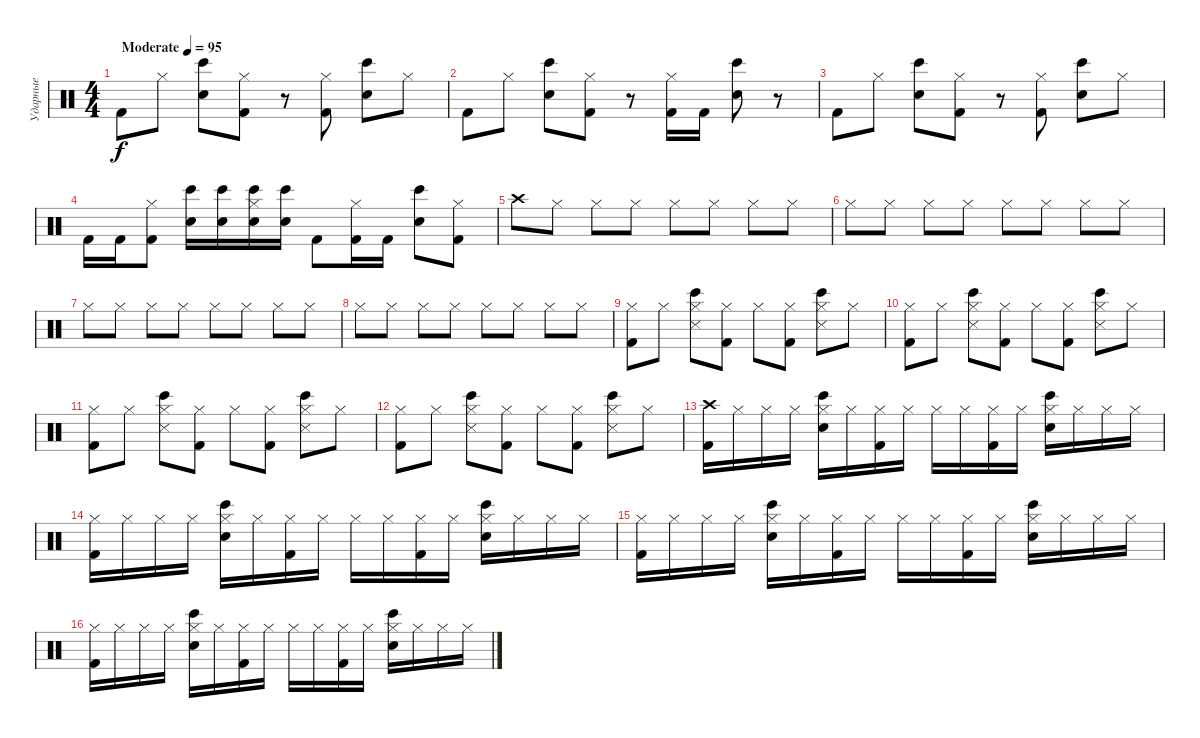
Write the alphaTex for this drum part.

\track ("Ударные" "Ударные") {instrument percussion}
\staff {score}
\articulation defaults
\ts (4 4)
\tempo (95 "Moderate")
\clef neutral
\ks c "Kick (hit) 2".8{dy f} "Hi-Hat (closed)".8
("Electric Snare (hit)" "Bongo High (hit)").8 ("Hi-Hat (closed)" "Kick (hit) 2").8 r.8 ("Hi-Hat (closed)" "Kick (hit) 2").8 ("Electric Snare (hit)" "Bongo High (hit)").8 "Hi-Hat (closed)".8 |
"Kick (hit) 2".8 "Hi-Hat (closed)".8 ("Electric Snare (hit)" "Bongo High (hit)").8 ("Hi-Hat (closed)" "Kick (hit) 2").8 r.8 ("Hi-Hat (closed)" "Kick (hit) 2").16 "Kick (hit) 2".16 ("Electric Snare (hit)" "Bongo High (hit)").8 r.8 |
"Kick (hit) 2".8 "Hi-Hat (closed)".8 ("Electric Snare (hit)" "Bongo High (hit)").8 ("Hi-Hat (closed)" "Kick (hit) 2").8 r.8 ("Hi-Hat (closed)" "Kick (hit) 2").8 ("Electric Snare (hit)" "Bongo High (hit)").8 "Hi-Hat (closed)".8 |
"Kick (hit) 2".16 "Kick (hit) 2".16 ("Hi-Hat (closed)" "Kick (hit) 2").8 ("Electric Snare (hit)" "Bongo High (hit)").16 ("Electric Snare (hit)" "Bongo High (hit)").16 ("Hi-Hat (closed)" "Electric Snare (hit)" "Bongo High (hit)").16 ("Electric Snare (hit)" "Bongo High (hit)").16 "Kick (hit) 2".8 ("Hi-Hat (closed)" "Kick (hit) 2").16 "Kick (hit) 2".16 ("Electric Snare (hit)" "Bongo High (hit)").8 ("Hi-Hat (closed)" "Kick (hit) 2").8 |
"Crash high (hit)".8 "Hi-Hat (closed)".8 "Hi-Hat (closed)".8 "Hi-Hat (closed)".8 "Hi-Hat (closed)".8 "Hi-Hat (closed)".8 "Hi-Hat (closed)".8 "Hi-Hat (closed)".8 |
"Hi-Hat (closed)".8 "Hi-Hat (closed)".8 "Hi-Hat (closed)".8 "Hi-Hat (closed)".8 "Hi-Hat (closed)".8 "Hi-Hat (closed)".8 "Hi-Hat (closed)".8 "Hi-Hat (closed)".8 |
"Hi-Hat (closed)".8 "Hi-Hat (closed)".8 "Hi-Hat (closed)".8 "Hi-Hat (closed)".8 "Hi-Hat (closed)".8 "Hi-Hat (closed)".8 "Hi-Hat (closed)".8 "Hi-Hat (closed)".8 |
"Hi-Hat (closed)".8 "Hi-Hat (closed)".8 "Hi-Hat (closed)".8 "Hi-Hat (closed)".8 "Hi-Hat (closed)".8 "Hi-Hat (closed)".8 "Hi-Hat (closed)".8 "Hi-Hat (closed)".8 |
("Hi-Hat (closed)" "Kick (hit) 2").8 "Hi-Hat (closed)".8 ("Hi-Hat (closed)" "Bongo High (hit)" "Snare (side stick) 3").8 ("Hi-Hat (closed)" "Kick (hit) 2").8 "Hi-Hat (closed)".8 ("Hi-Hat (closed)" "Kick (hit) 2").8 ("Hi-Hat (closed)" "Bongo High (hit)" "Snare (side stick) 3").8 "Hi-Hat (closed)".8 |
("Hi-Hat (closed)" "Kick (hit) 2").8 "Hi-Hat (closed)".8 ("Hi-Hat (closed)" "Bongo High (hit)" "Snare (side stick) 3").8 ("Hi-Hat (closed)" "Kick (hit) 2").8 "Hi-Hat (closed)".8 ("Hi-Hat (closed)" "Kick (hit) 2").8 ("Hi-Hat (closed)" "Bongo High (hit)" "Snare (side stick) 3").8 "Hi-Hat (closed)".8 |
("Hi-Hat (closed)" "Kick (hit) 2").8 "Hi-Hat (closed)".8 ("Hi-Hat (closed)" "Bongo High (hit)" "Snare (side stick) 3").8 ("Hi-Hat (closed)" "Kick (hit) 2").8 "Hi-Hat (closed)".8 ("Hi-Hat (closed)" "Kick (hit) 2").8 ("Hi-Hat (closed)" "Bongo High (hit)" "Snare (side stick) 3").8 "Hi-Hat (closed)".8 |
("Hi-Hat (closed)" "Kick (hit) 2").8 "Hi-Hat (closed)".8 ("Hi-Hat (closed)" "Bongo High (hit)" "Snare (side stick) 3").8 ("Hi-Hat (closed)" "Kick (hit) 2").8 "Hi-Hat (closed)".8 ("Hi-Hat (closed)" "Kick (hit) 2").8 ("Hi-Hat (closed)" "Bongo High (hit)" "Snare (side stick) 3").8 "Hi-Hat (closed)".8 |
("Crash high (hit)" "Kick (hit) 2").16 "Hi-Hat (closed)".16 "Hi-Hat (closed)".16 "Hi-Hat (closed)".16 ("Hi-Hat (closed)" "Electric Snare (hit)" "Bongo High (hit)").16 "Hi-Hat (closed)".16 ("Hi-Hat (closed)" "Kick (hit) 2").16 "Hi-Hat (closed)".16 "Hi-Hat (closed)".16 "Hi-Hat (closed)".16 ("Hi-Hat (closed)" "Kick (hit) 2").16 "Hi-Hat (closed)".16 ("Hi-Hat (closed)" "Electric Snare (hit)" "Bongo High (hit)").16 "Hi-Hat (closed)".16 "Hi-Hat (closed)".16 "Hi-Hat (closed)".16 |
("Hi-Hat (closed)" "Kick (hit) 2").16 "Hi-Hat (closed)".16 "Hi-Hat (closed)".16 "Hi-Hat (closed)".16 ("Hi-Hat (closed)" "Electric Snare (hit)" "Bongo High (hit)").16 "Hi-Hat (closed)".16 ("Hi-Hat (closed)" "Kick (hit) 2").16 "Hi-Hat (closed)".16 "Hi-Hat (closed)".16 "Hi-Hat (closed)".16 ("Hi-Hat (closed)" "Kick (hit) 2").16 "Hi-Hat (closed)".16 ("Hi-Hat (closed)" "Electric Snare (hit)" "Bongo High (hit)").16 "Hi-Hat (closed)".16 "Hi-Hat (closed)".16 "Hi-Hat (closed)".16 |
("Hi-Hat (closed)" "Kick (hit) 2").16 "Hi-Hat (closed)".16 "Hi-Hat (closed)".16 "Hi-Hat (closed)".16 ("Hi-Hat (closed)" "Electric Snare (hit)" "Bongo High (hit)").16 "Hi-Hat (closed)".16 ("Hi-Hat (closed)" "Kick (hit) 2").16 "Hi-Hat (closed)".16 "Hi-Hat (closed)".16 "Hi-Hat (closed)".16 ("Hi-Hat (closed)" "Kick (hit) 2").16 "Hi-Hat (closed)".16 ("Hi-Hat (closed)" "Electric Snare (hit)" "Bongo High (hit)").16 "Hi-Hat (closed)".16 "Hi-Hat (closed)".16 "Hi-Hat (closed)".16 |
("Hi-Hat (closed)" "Kick (hit) 2").16 "Hi-Hat (closed)".16 "Hi-Hat (closed)".16 "Hi-Hat (closed)".16 ("Hi-Hat (closed)" "Electric Snare (hit)" "Bongo High (hit)").16 "Hi-Hat (closed)".16 ("Hi-Hat (closed)" "Kick (hit) 2").16 "Hi-Hat (closed)".16 "Hi-Hat (closed)".16 "Hi-Hat (closed)".16 ("Hi-Hat (closed)" "Kick (hit) 2").16 "Hi-Hat (closed)".16 ("Hi-Hat (closed)" "Electric Snare (hit)" "Bongo High (hit)").16 "Hi-Hat (closed)".16 "Hi-Hat (closed)".16 "Hi-Hat (closed)".16
